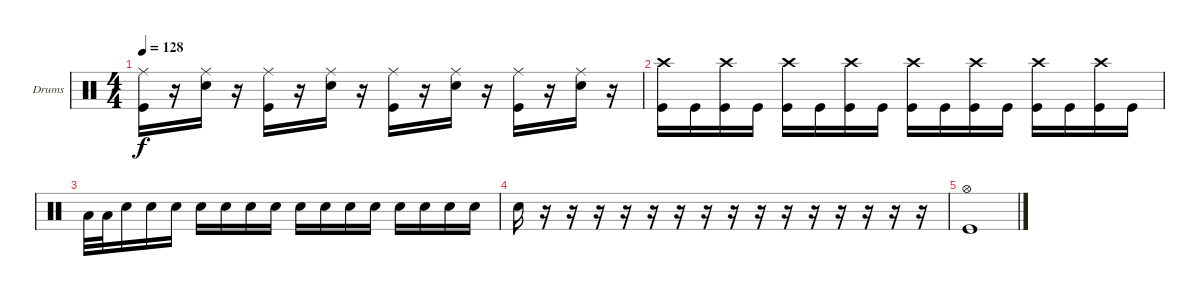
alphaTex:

\bracketExtendMode groupsimilarinstruments
\firstSystemTrackNameOrientation horizontal
\otherSystemsTrackNameOrientation horizontal
\track ("Drumkit" "Drums") {instrument percussion}
\staff {score}
\articulation defaults
\ts (4 4)
\tempo 128
\clef neutral
\ks c
("Kick (hit)" "Ride (middle)").16{dy f} r.16 ("Snare (hit) 2" "Ride (middle)").16 r.16 ("Kick (hit)" "Ride (middle)").16 r.16 ("Snare (hit) 2" "Ride (middle)").16 r.16 ("Kick (hit)" "Ride (middle)").16 r.16 ("Snare (hit) 2" "Ride (middle)").16 r.16 ("Kick (hit)" "Ride (middle)").16 r.16 ("Snare (hit) 2" "Ride (middle)").16 r.16 |
("Kick (hit)" "Crash high (hit)").16 "Kick (hit)".16 ("Kick (hit)" "Crash high (hit)").16 "Kick (hit)".16 ("Kick (hit)" "Crash high (hit)").16 "Kick (hit)".16 ("Kick (hit)" "Crash high (hit)").16 "Kick (hit)".16 ("Kick (hit)" "Crash high (hit)").16 "Kick (hit)".16 ("Kick (hit)" "Crash high (hit)").16 "Kick (hit)".16 ("Kick (hit)" "Crash high (hit)").16 "Kick (hit)".16 ("Kick (hit)" "Crash high (hit)").16 "Kick (hit)".16 |
"Low Tom (hit)".32 "Low Tom (hit)".32 "Snare (hit) 2".16 "Snare (hit) 2".16 "Snare (hit) 2".16 "Snare (hit) 2".16 "Snare (hit) 2".16 "Snare (hit) 2".16 "Snare (hit) 2".16 "Snare (hit) 2".16 "Snare (hit) 2".16 "Snare (hit) 2".16 "Snare (hit) 2".16 "Snare (hit) 2".16 "Snare (hit) 2".16 "Snare (hit) 2".16 "Snare (hit) 2".16 |
"Snare (hit) 2".16 r.16 r.16 r.16 r.16 r.16 r.16 r.16 r.16 r.16 r.16 r.16 r.16 r.16 r.16 r.16 |
("Kick (hit)" "Hi-Hat (open)").1
